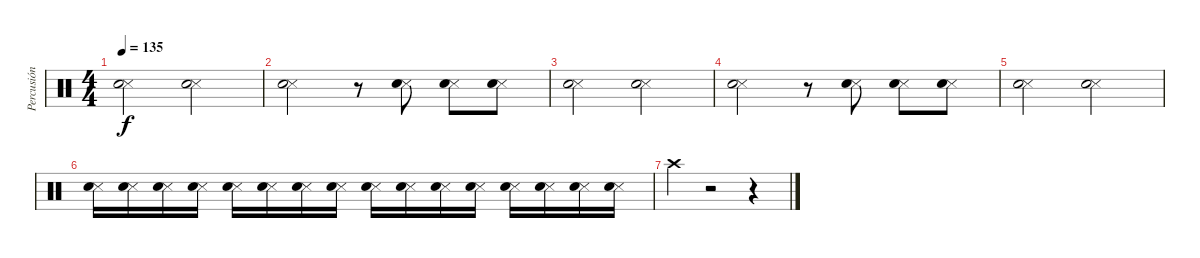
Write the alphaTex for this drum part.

\track ("Percusión" "Percusión") {instrument percussion}
\staff {score}
\articulation defaults
\ts (4 4)
\tempo 135
\clef neutral
\ks c
("Snare (side stick) 3" "Snare (hit) 2").2{dy f} ("Snare (side stick) 3" "Snare (hit) 2").2 |
("Snare (side stick) 3" "Snare (hit) 2").2 r.8 ("Snare (side stick) 3" "Snare (hit) 2").8 ("Snare (side stick) 3" "Snare (hit) 2").8 ("Snare (side stick) 3" "Snare (hit) 2").8 |
("Snare (side stick) 3" "Snare (hit) 2").2 ("Snare (side stick) 3" "Snare (hit) 2").2 |
("Snare (side stick) 3" "Snare (hit) 2").2 r.8 ("Snare (side stick) 3" "Snare (hit) 2").8 ("Snare (side stick) 3" "Snare (hit) 2").8 ("Snare (side stick) 3" "Snare (hit) 2").8 |
("Snare (side stick) 3" "Snare (hit) 2").2 ("Snare (side stick) 3" "Snare (hit) 2").2 |
("Snare (side stick) 3" "Snare (hit) 2").16 ("Snare (side stick) 3" "Snare (hit) 2").16 ("Snare (side stick) 3" "Snare (hit) 2").16 ("Snare (side stick) 3" "Snare (hit) 2").16 ("Snare (side stick) 3" "Snare (hit) 2").16 ("Snare (side stick) 3" "Snare (hit) 2").16 ("Snare (side stick) 3" "Snare (hit) 2").16 ("Snare (side stick) 3" "Snare (hit) 2").16 ("Snare (side stick) 3" "Snare (hit) 2").16 ("Snare (side stick) 3" "Snare (hit) 2").16 ("Snare (side stick) 3" "Snare (hit) 2").16 ("Snare (side stick) 3" "Snare (hit) 2").16 ("Snare (side stick) 3" "Snare (hit) 2").16 ("Snare (side stick) 3" "Snare (hit) 2").16 ("Snare (side stick) 3" "Snare (hit) 2").16 ("Snare (side stick) 3" "Snare (hit) 2").16 |
"Crash high (hit)".4 r.2 r.4
